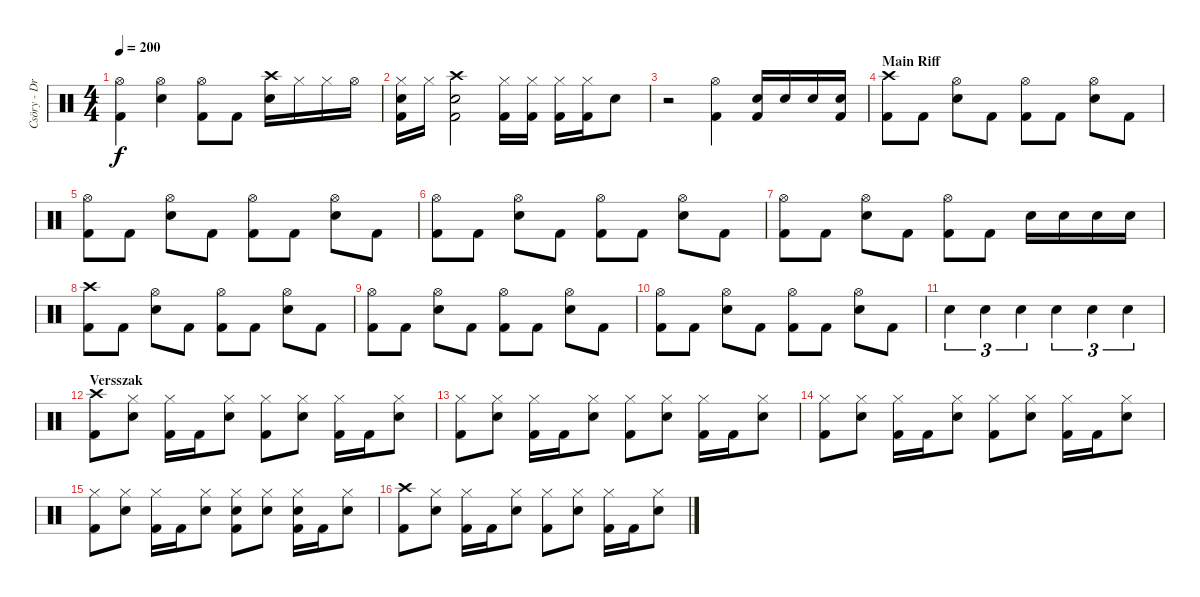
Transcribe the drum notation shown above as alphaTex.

\track ("Csöry - DrumZ" "Csöry - Dr") {instrument percussion}
\staff {score}
\articulation defaults
\ts (4 4)
\tempo 200
\clef neutral
\ks c
("Hi-Hat (open)" "Kick (hit) 2").4{dy f} ("Hi-Hat (open)" "Snare (hit) 2").4 ("Hi-Hat (open)" "Kick (hit) 2").8 "Kick (hit) 2".8 ("Crash high (hit)" "Snare (hit) 2").16 "Hi-Hat (closed)".16 "Hi-Hat (closed)".16 "Hi-Hat (open)".16 |
("Hi-Hat (closed)" "Snare (hit) 2" "Kick (hit) 2").16 "Hi-Hat (closed)".16 ("Crash high (hit)" "Snare (hit) 2" "Kick (hit) 2").2 ("Hi-Hat (closed)" "Kick (hit) 2").16 ("Hi-Hat (closed)" "Kick (hit) 2").16 ("Hi-Hat (closed)" "Kick (hit) 2").16 ("Hi-Hat (closed)" "Kick (hit) 2").16 "Snare (hit) 2".8 |
r.2 ("Hi-Hat (open)" "Kick (hit) 2").4 ("Snare (hit) 2" "Kick (hit) 2").16 "Snare (hit) 2".16 "Snare (hit) 2".16 ("Snare (hit) 2" "Kick (hit) 2").16 |
\section ("" "Main Riff")
("Crash high (hit)" "Kick (hit) 2").8 "Kick (hit) 2".8 ("Hi-Hat (open)" "Snare (hit) 2").8 "Kick (hit) 2".8 ("Hi-Hat (open)" "Kick (hit) 2").8 "Kick (hit) 2".8 ("Hi-Hat (open)" "Snare (hit) 2").8 "Kick (hit) 2".8 |
("Hi-Hat (open)" "Kick (hit) 2").8 "Kick (hit) 2".8 ("Hi-Hat (open)" "Snare (hit) 2").8 "Kick (hit) 2".8 ("Hi-Hat (open)" "Kick (hit) 2").8 "Kick (hit) 2".8 ("Hi-Hat (open)" "Snare (hit) 2").8 "Kick (hit) 2".8 |
("Hi-Hat (open)" "Kick (hit) 2").8 "Kick (hit) 2".8 ("Hi-Hat (open)" "Snare (hit) 2").8 "Kick (hit) 2".8 ("Hi-Hat (open)" "Kick (hit) 2").8 "Kick (hit) 2".8 ("Hi-Hat (open)" "Snare (hit) 2").8 "Kick (hit) 2".8 |
("Hi-Hat (open)" "Kick (hit) 2").8 "Kick (hit) 2".8 ("Hi-Hat (open)" "Snare (hit) 2").8 "Kick (hit) 2".8 ("Hi-Hat (open)" "Kick (hit) 2").8 "Kick (hit) 2".8 "Snare (hit) 2".16 "Snare (hit) 2".16 "Snare (hit) 2".16 "Snare (hit) 2".16 |
("Crash high (hit)" "Kick (hit) 2").8 "Kick (hit) 2".8 ("Hi-Hat (open)" "Snare (hit) 2").8 "Kick (hit) 2".8 ("Hi-Hat (open)" "Kick (hit) 2").8 "Kick (hit) 2".8 ("Hi-Hat (open)" "Snare (hit) 2").8 "Kick (hit) 2".8 |
("Hi-Hat (open)" "Kick (hit) 2").8 "Kick (hit) 2".8 ("Hi-Hat (open)" "Snare (hit) 2").8 "Kick (hit) 2".8 ("Hi-Hat (open)" "Kick (hit) 2").8 "Kick (hit) 2".8 ("Hi-Hat (open)" "Snare (hit) 2").8 "Kick (hit) 2".8 |
("Hi-Hat (open)" "Kick (hit) 2").8 "Kick (hit) 2".8 ("Hi-Hat (open)" "Snare (hit) 2").8 "Kick (hit) 2".8 ("Hi-Hat (open)" "Kick (hit) 2").8 "Kick (hit) 2".8 ("Hi-Hat (open)" "Snare (hit) 2").8 "Kick (hit) 2".8 |
"Snare (hit) 2".4{tu (3 2)} "Snare (hit) 2".4{tu (3 2)} "Snare (hit) 2".4{tu (3 2)} "Snare (hit) 2".4{tu (3 2)} "Snare (hit) 2".4{tu (3 2)} "Snare (hit) 2".4{tu (3 2)} |
\section ("" "Versszak")
("Crash high (hit)" "Kick (hit) 2").8 ("Hi-Hat (closed)" "Snare (hit) 2").8 ("Hi-Hat (closed)" "Kick (hit) 2").16 "Kick (hit) 2".16 ("Hi-Hat (closed)" "Snare (hit) 2").8 ("Hi-Hat (closed)" "Kick (hit) 2").8 ("Hi-Hat (closed)" "Snare (hit) 2").8 ("Hi-Hat (closed)" "Kick (hit) 2").16 "Kick (hit) 2".16 ("Hi-Hat (closed)" "Snare (hit) 2").8 |
("Hi-Hat (closed)" "Kick (hit) 2").8 ("Hi-Hat (closed)" "Snare (hit) 2").8 ("Hi-Hat (closed)" "Kick (hit) 2").16 "Kick (hit) 2".16 ("Hi-Hat (closed)" "Snare (hit) 2").8 ("Hi-Hat (closed)" "Kick (hit) 2").8 ("Hi-Hat (closed)" "Snare (hit) 2").8 ("Hi-Hat (closed)" "Kick (hit) 2").16 "Kick (hit) 2".16 ("Hi-Hat (closed)" "Snare (hit) 2").8 |
("Hi-Hat (closed)" "Kick (hit) 2").8 ("Hi-Hat (closed)" "Snare (hit) 2").8 ("Hi-Hat (closed)" "Kick (hit) 2").16 "Kick (hit) 2".16 ("Hi-Hat (closed)" "Snare (hit) 2").8 ("Hi-Hat (closed)" "Kick (hit) 2").8 ("Hi-Hat (closed)" "Snare (hit) 2").8 ("Hi-Hat (closed)" "Kick (hit) 2").16 "Kick (hit) 2".16 ("Hi-Hat (closed)" "Snare (hit) 2").8 |
("Hi-Hat (closed)" "Kick (hit) 2").8 ("Hi-Hat (closed)" "Snare (hit) 2").8 ("Hi-Hat (closed)" "Kick (hit) 2").16 "Kick (hit) 2".16 ("Hi-Hat (closed)" "Snare (hit) 2").8 ("Hi-Hat (closed)" "Snare (hit) 2" "Kick (hit) 2").8 ("Hi-Hat (closed)" "Snare (hit) 2").8 ("Hi-Hat (closed)" "Snare (hit) 2" "Kick (hit) 2").16 "Kick (hit) 2".16 ("Hi-Hat (closed)" "Snare (hit) 2").8 |
("Crash high (hit)" "Kick (hit) 2").8 ("Hi-Hat (closed)" "Snare (hit) 2").8 ("Hi-Hat (closed)" "Kick (hit) 2").16 "Kick (hit) 2".16 ("Hi-Hat (closed)" "Snare (hit) 2").8 ("Hi-Hat (closed)" "Kick (hit) 2").8 ("Hi-Hat (closed)" "Snare (hit) 2").8 ("Hi-Hat (closed)" "Kick (hit) 2").16 "Kick (hit) 2".16 ("Hi-Hat (closed)" "Snare (hit) 2").8
